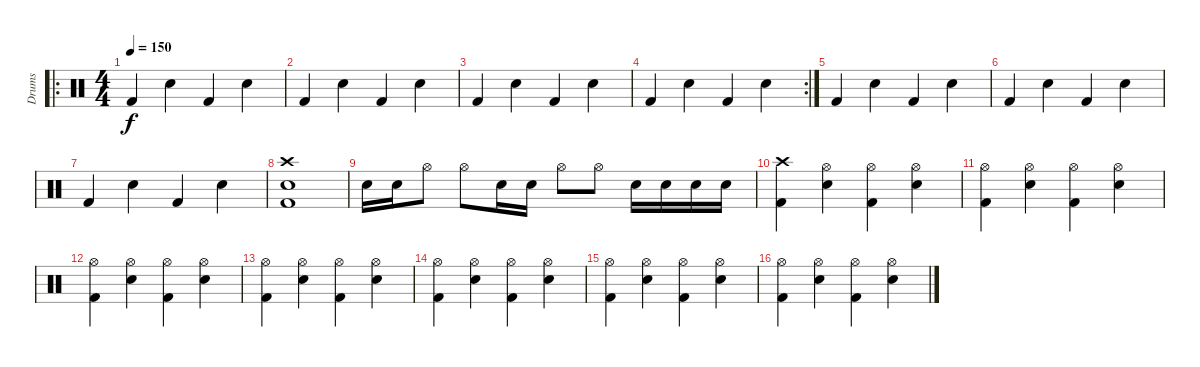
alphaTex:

\track ("Drums" "Drums") {instrument percussion}
\staff {score}
\articulation defaults
\ro
\ts (4 4)
\tempo 150
\clef neutral
\ks c "Kick (hit) 2".4{dy f} "Electric Snare (hit)".4 "Kick (hit) 2".4 "Electric Snare (hit)".4
|
"Kick (hit) 2".4 "Electric Snare (hit)".4 "Kick (hit) 2".4 "Electric Snare (hit)".4 |
"Kick (hit) 2".4 "Electric Snare (hit)".4 "Kick (hit) 2".4 "Electric Snare (hit)".4 |
\rc 2 "Kick (hit) 2".4 "Electric Snare (hit)".4 "Kick (hit) 2".4 "Electric Snare (hit)".4
|
"Kick (hit) 2".4 "Electric Snare (hit)".4 "Kick (hit) 2".4 "Electric Snare (hit)".4 |
"Kick (hit) 2".4 "Electric Snare (hit)".4 "Kick (hit) 2".4 "Electric Snare (hit)".4 |
"Kick (hit) 2".4 "Electric Snare (hit)".4 "Kick (hit) 2".4 "Electric Snare (hit)".4 |
("Crash high (hit)" "Electric Snare (hit)" "Kick (hit) 2").1 |
"Electric Snare (hit)".16 "Electric Snare (hit)".16 "Hi-Hat (open)".8 "Hi-Hat (open)".8 "Electric Snare (hit)".16 "Electric Snare (hit)".16 "Hi-Hat (open)".8 "Hi-Hat (open)".8 "Electric Snare (hit)".16 "Electric Snare (hit)".16 "Electric Snare (hit)".16 "Electric Snare (hit)".16 |
("Crash high (hit)" "Kick (hit) 2").4 ("Hi-Hat (open)" "Electric Snare (hit)").4 ("Hi-Hat (open)" "Kick (hit) 2").4 ("Hi-Hat (open)" "Electric Snare (hit)").4 |
("Hi-Hat (open)" "Kick (hit) 2").4 ("Hi-Hat (open)" "Electric Snare (hit)").4 ("Hi-Hat (open)" "Kick (hit) 2").4 ("Hi-Hat (open)" "Electric Snare (hit)").4 |
("Hi-Hat (open)" "Kick (hit) 2").4 ("Hi-Hat (open)" "Electric Snare (hit)").4 ("Hi-Hat (open)" "Kick (hit) 2").4 ("Hi-Hat (open)" "Electric Snare (hit)").4 |
("Hi-Hat (open)" "Kick (hit) 2").4 ("Hi-Hat (open)" "Electric Snare (hit)").4 ("Hi-Hat (open)" "Kick (hit) 2").4 ("Hi-Hat (open)" "Electric Snare (hit)").4 |
("Hi-Hat (open)" "Kick (hit) 2").4 ("Hi-Hat (open)" "Electric Snare (hit)").4 ("Hi-Hat (open)" "Kick (hit) 2").4 ("Hi-Hat (open)" "Electric Snare (hit)").4 |
("Hi-Hat (open)" "Kick (hit) 2").4 ("Hi-Hat (open)" "Electric Snare (hit)").4 ("Hi-Hat (open)" "Kick (hit) 2").4 ("Hi-Hat (open)" "Electric Snare (hit)").4 |
("Hi-Hat (open)" "Kick (hit) 2").4 ("Hi-Hat (open)" "Electric Snare (hit)").4 ("Hi-Hat (open)" "Kick (hit) 2").4 ("Hi-Hat (open)" "Electric Snare (hit)").4
